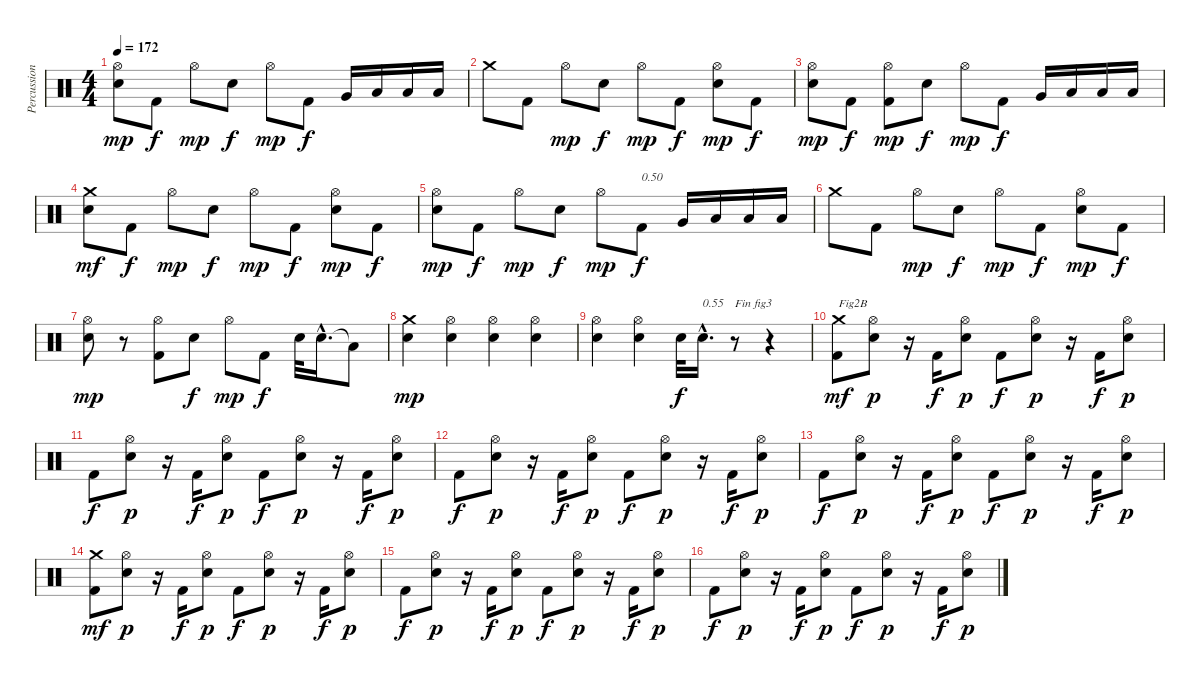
\track ("Percussions" "Percussion") {instrument percussion}
\staff {score}
\articulation defaults
\ts (4 4)
\tempo 172
\clef neutral
\ks c
("Electric Snare (hit)" "Hi-Hat (open)").8{dy mp} "Kick (hit) 2".8{dy f} "Hi-Hat (open)".8{dy mp} "Electric Snare (hit)".8{dy f} "Hi-Hat (open)".8{dy mp} "Kick (hit) 2".8{dy f} "Very Low Tom (hit)".16 "Low Floor Tom (hit)".16 "Low Floor Tom (hit)".16 "Low Floor Tom (hit)".16 |
"Crash medium (hit)".8 "Kick (hit) 2".8 "Hi-Hat (open)".8{dy mp} "Electric Snare (hit)".8{dy f} "Hi-Hat (open)".8{dy mp} "Kick (hit) 2".8{dy f} ("Electric Snare (hit)" "Hi-Hat (open)").8{dy mp} "Kick (hit) 2".8{dy f} |
("Electric Snare (hit)" "Hi-Hat (open)").8{dy mp} "Kick (hit) 2".8{dy f} ("Kick (hit) 2" "Hi-Hat (open)").8{dy mp} "Electric Snare (hit)".8{dy f} "Hi-Hat (open)".8{dy mp} "Kick (hit) 2".8{dy f} "Very Low Tom (hit)".16 "Low Floor Tom (hit)".16 "Low Floor Tom (hit)".16 "Low Floor Tom (hit)".16 |
("Electric Snare (hit)" "Crash medium (hit)").8{dy mf} "Kick (hit) 2".8{dy f} "Hi-Hat (open)".8{dy mp} "Electric Snare (hit)".8{dy f} "Hi-Hat (open)".8{dy mp} "Kick (hit) 2".8{dy f} ("Electric Snare (hit)" "Hi-Hat (open)").8{dy mp} "Kick (hit) 2".8{dy f} |
("Electric Snare (hit)" "Hi-Hat (open)").8{dy mp} "Kick (hit) 2".8{dy f} "Hi-Hat (open)".8{dy mp} "Electric Snare (hit)".8{dy f} "Hi-Hat (open)".8{dy mp} "Kick (hit) 2".8{txt "0.50" dy f} "Very Low Tom (hit)".16 "Low Floor Tom (hit)".16 "Low Floor Tom (hit)".16 "Low Floor Tom (hit)".16 |
"Crash medium (hit)".8 "Kick (hit) 2".8 "Hi-Hat (open)".8{dy mp} "Electric Snare (hit)".8{dy f} "Hi-Hat (open)".8{dy mp} "Kick (hit) 2".8{dy f} ("Electric Snare (hit)" "Hi-Hat (open)").8{dy mp} "Kick (hit) 2".8{dy f} |
("Electric Snare (hit)" "Hi-Hat (open)").8{dy mp} r.8 ("Kick (hit) 2" "Hi-Hat (open)").8 "Electric Snare (hit)".8{dy f} "Hi-Hat (open)".8{dy mp} "Kick (hit) 2".8{dy f} "Electric Snare (hit)".32 "Electric Snare (hit)"{hac}.16{d} "Low Floor Tom (hit)"{t}.8 |
("Electric Snare (hit)" "Crash medium (hit)").4{dy mp} ("Electric Snare (hit)" "Hi-Hat (open)").4 ("Electric Snare (hit)" "Hi-Hat (open)").4 ("Electric Snare (hit)" "Hi-Hat (open)").4 |
("Electric Snare (hit)" "Hi-Hat (open)").4 ("Electric Snare (hit)" "Hi-Hat (open)").4 "Electric Snare (hit)".32{dy f} "Electric Snare (hit)"{hac}.16{d txt "0.55"} r.8{txt "Fin fig3"} r.4 |
("Kick (hit) 2" "Crash medium (hit)").8{txt "Fig2B" dy mf} ("Electric Snare (hit)" "Hi-Hat (open)").8{dy p} r.16 "Kick (hit) 2".16{dy f} ("Electric Snare (hit)" "Hi-Hat (open)").8{dy p} "Kick (hit) 2".8{dy f} ("Electric Snare (hit)" "Hi-Hat (open)").8{dy p} r.16 "Kick (hit) 2".16{dy f} ("Electric Snare (hit)" "Hi-Hat (open)").8{dy p} |
"Kick (hit) 2".8{dy f} ("Electric Snare (hit)" "Hi-Hat (open)").8{dy p} r.16 "Kick (hit) 2".16{dy f} ("Electric Snare (hit)" "Hi-Hat (open)").8{dy p} "Kick (hit) 2".8{dy f} ("Electric Snare (hit)" "Hi-Hat (open)").8{dy p} r.16 "Kick (hit) 2".16{dy f} ("Electric Snare (hit)" "Hi-Hat (open)").8{dy p} |
"Kick (hit) 2".8{dy f} ("Electric Snare (hit)" "Hi-Hat (open)").8{dy p} r.16 "Kick (hit) 2".16{dy f} ("Electric Snare (hit)" "Hi-Hat (open)").8{dy p} "Kick (hit) 2".8{dy f} ("Electric Snare (hit)" "Hi-Hat (open)").8{dy p} r.16 "Kick (hit) 2".16{dy f} ("Electric Snare (hit)" "Hi-Hat (open)").8{dy p} |
"Kick (hit) 2".8{dy f} ("Electric Snare (hit)" "Hi-Hat (open)").8{dy p} r.16 "Kick (hit) 2".16{dy f} ("Electric Snare (hit)" "Hi-Hat (open)").8{dy p} "Kick (hit) 2".8{dy f} ("Electric Snare (hit)" "Hi-Hat (open)").8{dy p} r.16 "Kick (hit) 2".16{dy f} ("Electric Snare (hit)" "Hi-Hat (open)").8{dy p} |
("Kick (hit) 2" "Crash medium (hit)").8{dy mf} ("Electric Snare (hit)" "Hi-Hat (open)").8{dy p} r.16 "Kick (hit) 2".16{dy f} ("Electric Snare (hit)" "Hi-Hat (open)").8{dy p} "Kick (hit) 2".8{dy f} ("Electric Snare (hit)" "Hi-Hat (open)").8{dy p} r.16 "Kick (hit) 2".16{dy f} ("Electric Snare (hit)" "Hi-Hat (open)").8{dy p} |
"Kick (hit) 2".8{dy f} ("Electric Snare (hit)" "Hi-Hat (open)").8{dy p} r.16 "Kick (hit) 2".16{dy f} ("Electric Snare (hit)" "Hi-Hat (open)").8{dy p} "Kick (hit) 2".8{dy f} ("Electric Snare (hit)" "Hi-Hat (open)").8{dy p} r.16 "Kick (hit) 2".16{dy f} ("Electric Snare (hit)" "Hi-Hat (open)").8{dy p} |
"Kick (hit) 2".8{dy f} ("Electric Snare (hit)" "Hi-Hat (open)").8{dy p} r.16 "Kick (hit) 2".16{dy f} ("Electric Snare (hit)" "Hi-Hat (open)").8{dy p} "Kick (hit) 2".8{dy f} ("Electric Snare (hit)" "Hi-Hat (open)").8{dy p} r.16 "Kick (hit) 2".16{dy f} ("Electric Snare (hit)" "Hi-Hat (open)").8{dy p}
